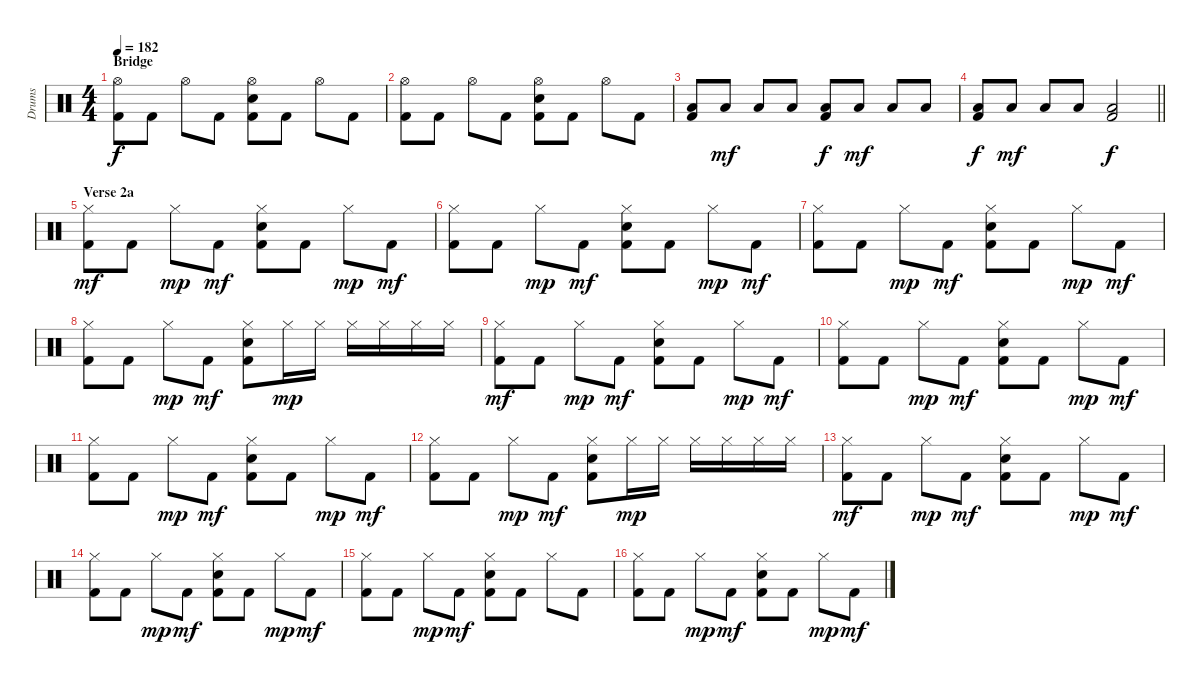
\track ("Drums" "Drums") {instrument percussion}
\staff {score}
\articulation defaults
\ts (4 4)
\section ("" "Bridge")
\tempo 182
\clef neutral
\ks c
("Hi-Hat (open)" "Kick (hit) 2").8{dy f} "Kick (hit) 2".8 "Hi-Hat (open)".8 "Kick (hit) 2".8 ("Hi-Hat (open)" "Snare (hit) 2" "Kick (hit) 2").8 "Kick (hit) 2".8 "Hi-Hat (open)".8 "Kick (hit) 2".8 |
("Hi-Hat (open)" "Kick (hit) 2").8 "Kick (hit) 2".8 "Hi-Hat (open)".8 "Kick (hit) 2".8 ("Hi-Hat (open)" "Snare (hit) 2" "Kick (hit) 2").8 "Kick (hit) 2".8 "Hi-Hat (open)".8 "Kick (hit) 2".8 |
("Low Floor Tom (hit)" "Kick (hit) 2").8 "Low Floor Tom (hit)".8{dy mf} "Low Floor Tom (hit)".8 "Low Floor Tom (hit)".8 ("Low Floor Tom (hit)" "Kick (hit) 2").8{dy f} "Low Floor Tom (hit)".8{dy mf} "Low Floor Tom (hit)".8 "Low Floor Tom (hit)".8 |
\barLineRight lightlight
("Low Floor Tom (hit)" "Kick (hit) 2").8{dy f} "Low Floor Tom (hit)".8{dy mf} "Low Floor Tom (hit)".8 "Low Floor Tom (hit)".8 ("Low Floor Tom (hit)" "Kick (hit) 2").2{dy f} |
\section ("" "Verse 2a")
("Hi-Hat (closed)" "Kick (hit) 2").8{dy mf} "Kick (hit) 2".8 "Hi-Hat (closed)".8{dy mp} "Kick (hit) 2".8{dy mf} ("Hi-Hat (closed)" "Snare (hit) 2" "Kick (hit) 2").8 "Kick (hit) 2".8 "Hi-Hat (closed)".8{dy mp} "Kick (hit) 2".8{dy mf} |
("Hi-Hat (closed)" "Kick (hit) 2").8 "Kick (hit) 2".8 "Hi-Hat (closed)".8{dy mp} "Kick (hit) 2".8{dy mf} ("Hi-Hat (closed)" "Snare (hit) 2" "Kick (hit) 2").8 "Kick (hit) 2".8 "Hi-Hat (closed)".8{dy mp} "Kick (hit) 2".8{dy mf} |
("Hi-Hat (closed)" "Kick (hit) 2").8 "Kick (hit) 2".8 "Hi-Hat (closed)".8{dy mp} "Kick (hit) 2".8{dy mf} ("Hi-Hat (closed)" "Snare (hit) 2" "Kick (hit) 2").8 "Kick (hit) 2".8 "Hi-Hat (closed)".8{dy mp} "Kick (hit) 2".8{dy mf} |
("Hi-Hat (closed)" "Kick (hit) 2").8 "Kick (hit) 2".8 "Hi-Hat (closed)".8{dy mp} "Kick (hit) 2".8{dy mf} ("Hi-Hat (closed)" "Snare (hit) 2" "Kick (hit) 2").8 "Hi-Hat (closed)".16{dy mp} "Hi-Hat (closed)".16 "Hi-Hat (closed)".16 "Hi-Hat (closed)".16 "Hi-Hat (closed)".16 "Hi-Hat (closed)".16 |
("Hi-Hat (closed)" "Kick (hit) 2").8{dy mf} "Kick (hit) 2".8 "Hi-Hat (closed)".8{dy mp} "Kick (hit) 2".8{dy mf} ("Hi-Hat (closed)" "Snare (hit) 2" "Kick (hit) 2").8 "Kick (hit) 2".8 "Hi-Hat (closed)".8{dy mp} "Kick (hit) 2".8{dy mf} |
("Hi-Hat (closed)" "Kick (hit) 2").8 "Kick (hit) 2".8 "Hi-Hat (closed)".8{dy mp} "Kick (hit) 2".8{dy mf} ("Hi-Hat (closed)" "Snare (hit) 2" "Kick (hit) 2").8 "Kick (hit) 2".8 "Hi-Hat (closed)".8{dy mp} "Kick (hit) 2".8{dy mf} |
("Hi-Hat (closed)" "Kick (hit) 2").8 "Kick (hit) 2".8 "Hi-Hat (closed)".8{dy mp} "Kick (hit) 2".8{dy mf} ("Hi-Hat (closed)" "Snare (hit) 2" "Kick (hit) 2").8 "Kick (hit) 2".8 "Hi-Hat (closed)".8{dy mp} "Kick (hit) 2".8{dy mf} |
("Hi-Hat (closed)" "Kick (hit) 2").8 "Kick (hit) 2".8 "Hi-Hat (closed)".8{dy mp} "Kick (hit) 2".8{dy mf} ("Hi-Hat (closed)" "Snare (hit) 2" "Kick (hit) 2").8 "Hi-Hat (closed)".16{dy mp} "Hi-Hat (closed)".16 "Hi-Hat (closed)".16 "Hi-Hat (closed)".16 "Hi-Hat (closed)".16 "Hi-Hat (closed)".16 |
("Hi-Hat (closed)" "Kick (hit) 2").8{dy mf} "Kick (hit) 2".8 "Hi-Hat (closed)".8{dy mp} "Kick (hit) 2".8{dy mf} ("Hi-Hat (closed)" "Snare (hit) 2" "Kick (hit) 2").8 "Kick (hit) 2".8 "Hi-Hat (closed)".8{dy mp} "Kick (hit) 2".8{dy mf} |
("Hi-Hat (closed)" "Kick (hit) 2").8 "Kick (hit) 2".8 "Hi-Hat (closed)".8{dy mp} "Kick (hit) 2".8{dy mf} ("Hi-Hat (closed)" "Snare (hit) 2" "Kick (hit) 2").8 "Kick (hit) 2".8 "Hi-Hat (closed)".8{dy mp} "Kick (hit) 2".8{dy mf} |
("Hi-Hat (closed)" "Kick (hit) 2").8 "Kick (hit) 2".8 "Hi-Hat (closed)".8{dy mp} "Kick (hit) 2".8{dy mf} ("Hi-Hat (closed)" "Snare (hit) 2" "Kick (hit) 2").8 "Kick (hit) 2".8 "Hi-Hat (closed)".8 "Kick (hit) 2".8 |
("Hi-Hat (closed)" "Kick (hit) 2").8 "Kick (hit) 2".8 "Hi-Hat (closed)".8{dy mp} "Kick (hit) 2".8{dy mf} ("Hi-Hat (closed)" "Snare (hit) 2" "Kick (hit) 2").8 "Kick (hit) 2".8 "Hi-Hat (closed)".8{dy mp} "Kick (hit) 2".8{dy mf}
